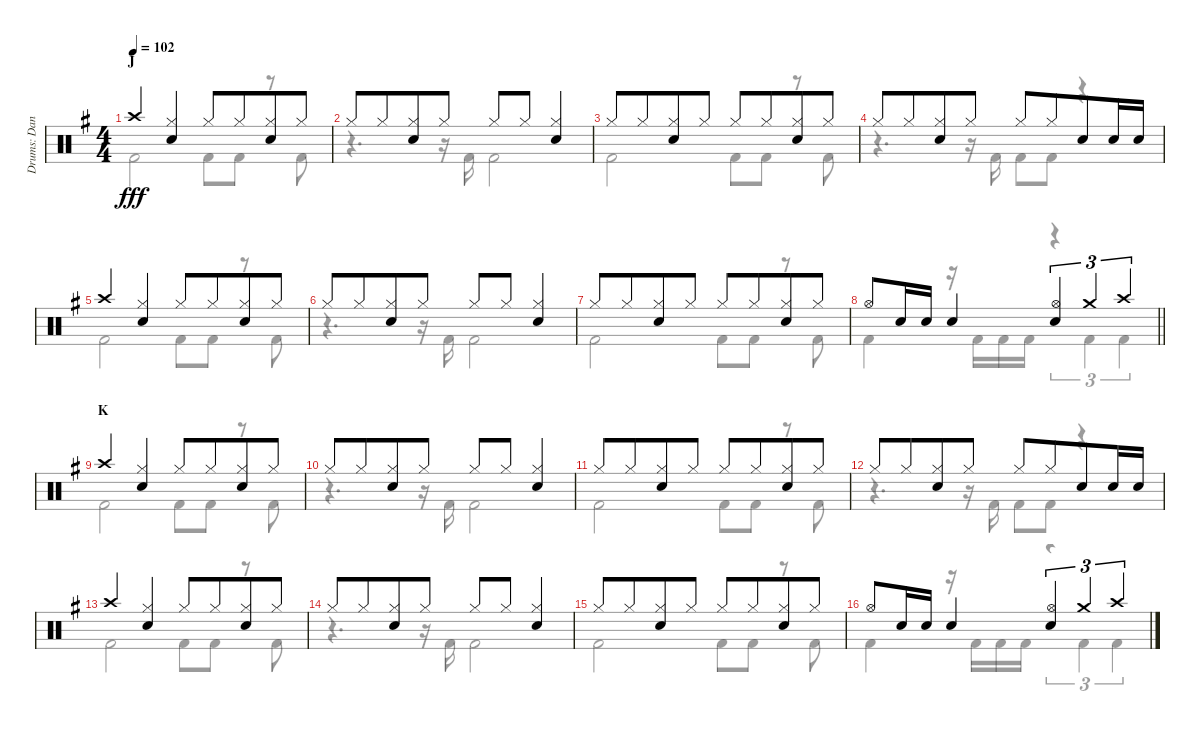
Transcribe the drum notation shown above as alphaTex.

\track ("Drums: Dana" "Drums: Dan") {instrument percussion}
\staff {score}
\articulation defaults
\voice
\ts (4 4)
\section ("" "J")
\tempo 102
\clef neutral
\ks g "Crash high (hit)".4{dy fff}
("Hi-Hat (closed)" "Snare (hit) 2").4 "Hi-Hat (closed)".8 "Hi-Hat (closed)".8{beam merge} ("Hi-Hat (closed)" "Snare (hit) 2").8 "Hi-Hat (closed)".8 |
"Hi-Hat (closed)".8 "Hi-Hat (closed)".8{beam merge} ("Hi-Hat (closed)" "Snare (hit) 2").8 "Hi-Hat (closed)".8 "Hi-Hat (closed)".8 "Hi-Hat (closed)".8{beam merge} ("Hi-Hat (closed)" "Snare (hit) 2").4 |
"Hi-Hat (closed)".8 "Hi-Hat (closed)".8{beam merge} ("Hi-Hat (closed)" "Snare (hit) 2").8 "Hi-Hat (closed)".8 "Hi-Hat (closed)".8 "Hi-Hat (closed)".8{beam merge} ("Hi-Hat (closed)" "Snare (hit) 2").8 "Hi-Hat (closed)".8 |
"Hi-Hat (closed)".8 "Hi-Hat (closed)".8{beam merge} ("Hi-Hat (closed)" "Snare (hit) 2").8 "Hi-Hat (closed)".8 "Hi-Hat (closed)".8 "Hi-Hat (closed)".8{beam merge} "Snare (hit) 2".8 "Snare (hit) 2".16 "Snare (hit) 2".16 |
"Crash high (hit)".4 ("Hi-Hat (closed)" "Snare (hit) 2").4 "Hi-Hat (closed)".8 "Hi-Hat (closed)".8{beam merge} ("Hi-Hat (closed)" "Snare (hit) 2").8 "Hi-Hat (closed)".8 |
"Hi-Hat (closed)".8 "Hi-Hat (closed)".8{beam merge} ("Hi-Hat (closed)" "Snare (hit) 2").8 "Hi-Hat (closed)".8 "Hi-Hat (closed)".8 "Hi-Hat (closed)".8{beam merge} ("Hi-Hat (closed)" "Snare (hit) 2").4 |
"Hi-Hat (closed)".8 "Hi-Hat (closed)".8{beam merge} ("Hi-Hat (closed)" "Snare (hit) 2").8 "Hi-Hat (closed)".8 "Hi-Hat (closed)".8 "Hi-Hat (closed)".8{beam merge} ("Hi-Hat (closed)" "Snare (hit) 2").8 "Hi-Hat (closed)".8 |
\barLineRight lightlight "Hi-Hat (open)".8 "Snare (hit) 2".16 "Snare (hit) 2".16 "Snare (hit) 2".4
("Hi-Hat (open)" "Snare (hit) 2").4{tu (3 2)} "Crash medium (hit)".4{tu (3 2)} "Crash high (hit)".4{tu (3 2)} |
\section ("" "K")
"Crash high (hit)".4 ("Hi-Hat (closed)" "Snare (hit) 2").4 "Hi-Hat (closed)".8 "Hi-Hat (closed)".8{beam merge} ("Hi-Hat (closed)" "Snare (hit) 2").8 "Hi-Hat (closed)".8 |
"Hi-Hat (closed)".8 "Hi-Hat (closed)".8{beam merge} ("Hi-Hat (closed)" "Snare (hit) 2").8 "Hi-Hat (closed)".8 "Hi-Hat (closed)".8 "Hi-Hat (closed)".8{beam merge} ("Hi-Hat (closed)" "Snare (hit) 2").4 |
"Hi-Hat (closed)".8 "Hi-Hat (closed)".8{beam merge} ("Hi-Hat (closed)" "Snare (hit) 2").8 "Hi-Hat (closed)".8 "Hi-Hat (closed)".8 "Hi-Hat (closed)".8{beam merge} ("Hi-Hat (closed)" "Snare (hit) 2").8 "Hi-Hat (closed)".8 |
"Hi-Hat (closed)".8 "Hi-Hat (closed)".8{beam merge} ("Hi-Hat (closed)" "Snare (hit) 2").8 "Hi-Hat (closed)".8 "Hi-Hat (closed)".8 "Hi-Hat (closed)".8{beam merge} "Snare (hit) 2".8 "Snare (hit) 2".16 "Snare (hit) 2".16 |
"Crash high (hit)".4 ("Hi-Hat (closed)" "Snare (hit) 2").4 "Hi-Hat (closed)".8 "Hi-Hat (closed)".8{beam merge} ("Hi-Hat (closed)" "Snare (hit) 2").8 "Hi-Hat (closed)".8 |
"Hi-Hat (closed)".8 "Hi-Hat (closed)".8{beam merge} ("Hi-Hat (closed)" "Snare (hit) 2").8 "Hi-Hat (closed)".8 "Hi-Hat (closed)".8 "Hi-Hat (closed)".8{beam merge} ("Hi-Hat (closed)" "Snare (hit) 2").4 |
"Hi-Hat (closed)".8 "Hi-Hat (closed)".8{beam merge} ("Hi-Hat (closed)" "Snare (hit) 2").8 "Hi-Hat (closed)".8 "Hi-Hat (closed)".8 "Hi-Hat (closed)".8{beam merge} ("Hi-Hat (closed)" "Snare (hit) 2").8 "Hi-Hat (closed)".8 |
"Hi-Hat (open)".8 "Snare (hit) 2".16 "Snare (hit) 2".16 "Snare (hit) 2".4 ("Hi-Hat (open)" "Snare (hit) 2").4{tu (3 2)} "Crash medium (hit)".4{tu (3 2)} "Crash high (hit)".4{tu (3 2)}
\voice
\clef neutral
\ottava regular
\simile none
\ks g "Kick (hit) 2".2{dy fff} "Kick (hit) 2".8 "Kick (hit) 2".8
r.8 "Kick (hit) 2".8 |
r.4{d} r.16 "Kick (hit) 2".16 "Kick (hit) 2".2 |
"Kick (hit) 2".2 "Kick (hit) 2".8 "Kick (hit) 2".8 r.8 "Kick (hit) 2".8 |
r.4{d} r.16 "Kick (hit) 2".16 "Kick (hit) 2".8 "Kick (hit) 2".8 r.4 |
"Kick (hit) 2".2 "Kick (hit) 2".8 "Kick (hit) 2".8 r.8 "Kick (hit) 2".8 |
r.4{d} r.16 "Kick (hit) 2".16 "Kick (hit) 2".2 |
"Kick (hit) 2".2 "Kick (hit) 2".8 "Kick (hit) 2".8 r.8 "Kick (hit) 2".8 |
\barLineRight lightlight "Kick (hit) 2".4
r.16 "Kick (hit) 2".16 "Kick (hit) 2".16 "Kick (hit) 2".16 r.4{tu (3 2)} "Kick (hit) 2".4{tu (3 2)} "Kick (hit) 2".4{tu (3 2)} |
"Kick (hit) 2".2 "Kick (hit) 2".8 "Kick (hit) 2".8 r.8 "Kick (hit) 2".8 |
r.4{d} r.16 "Kick (hit) 2".16 "Kick (hit) 2".2 |
"Kick (hit) 2".2 "Kick (hit) 2".8 "Kick (hit) 2".8 r.8 "Kick (hit) 2".8 |
r.4{d} r.16 "Kick (hit) 2".16 "Kick (hit) 2".8 "Kick (hit) 2".8 r.4 |
"Kick (hit) 2".2 "Kick (hit) 2".8 "Kick (hit) 2".8 r.8 "Kick (hit) 2".8 |
r.4{d} r.16 "Kick (hit) 2".16 "Kick (hit) 2".2 |
"Kick (hit) 2".2 "Kick (hit) 2".8 "Kick (hit) 2".8 r.8 "Kick (hit) 2".8 |
"Kick (hit) 2".4 r.16 "Kick (hit) 2".16 "Kick (hit) 2".16 "Kick (hit) 2".16 r.4{tu (3 2)} "Kick (hit) 2".4{tu (3 2)} "Kick (hit) 2".4{tu (3 2)}
